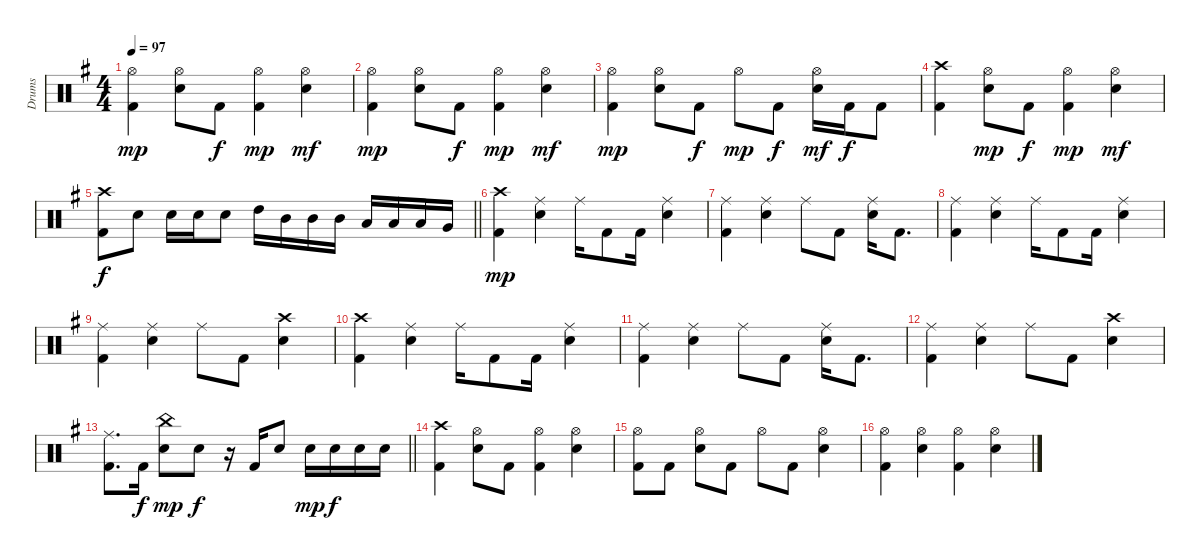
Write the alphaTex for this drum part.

\track ("Drums" "Drums") {instrument percussion}
\staff {score}
\articulation defaults
\ts (4 4)
\tempo 97
\clef neutral
\ks g
("Hi-Hat (open)" "Kick (hit) 2").4{dy mp} ("Hi-Hat (open)" "Electric Snare (hit)").8 "Kick (hit) 2".8{dy f} ("Hi-Hat (open)" "Kick (hit) 2").4{dy mp} ("Hi-Hat (open)" "Electric Snare (hit)").4{dy mf} |
("Hi-Hat (open)" "Kick (hit) 2").4{dy mp} ("Hi-Hat (open)" "Electric Snare (hit)").8 "Kick (hit) 2".8{dy f} ("Hi-Hat (open)" "Kick (hit) 2").4{dy mp} ("Hi-Hat (open)" "Electric Snare (hit)").4{dy mf} |
("Hi-Hat (open)" "Kick (hit) 2").4{dy mp} ("Hi-Hat (open)" "Electric Snare (hit)").8 "Kick (hit) 2".8{dy f} "Hi-Hat (open)".8{dy mp} "Kick (hit) 2".8{dy f} ("Hi-Hat (open)" "Electric Snare (hit)").16{dy mf} "Kick (hit) 2".16{dy f} "Kick (hit) 2".8 |
("Crash high (hit)" "Kick (hit) 2").4 ("Hi-Hat (open)" "Electric Snare (hit)").8{dy mp} "Kick (hit) 2".8{dy f} ("Hi-Hat (open)" "Kick (hit) 2").4{dy mp} ("Hi-Hat (open)" "Electric Snare (hit)").4{dy mf} |
\barLineRight lightlight
("Crash high (hit)" "Kick (hit) 2").8{dy f} "Electric Snare (hit)".8 "Electric Snare (hit)".16 "Electric Snare (hit)".16 "Electric Snare (hit)".8 "High Tom (hit)".16 "Mid Tom (hit)".16 "Mid Tom (hit)".16 "Mid Tom (hit)".16 "Low Tom (hit)".16 "Low Tom (hit)".16 "Low Tom (hit)".16 "Very Low Tom (hit)".16 |
("Crash high (hit)" "Kick (hit) 2").4{dy mp} ("Ride (middle)" "Electric Snare (hit)").4 "Ride (middle)".16 "Kick (hit) 2".8 "Kick (hit) 2".16 ("Ride (middle)" "Electric Snare (hit)").4 |
("Ride (middle)" "Kick (hit) 2").4 ("Ride (middle)" "Electric Snare (hit)").4 "Ride (middle)".8 "Kick (hit) 2".8 ("Ride (middle)" "Electric Snare (hit)").16 "Kick (hit) 2".8{d} |
("Ride (middle)" "Kick (hit) 2").4 ("Ride (middle)" "Electric Snare (hit)").4 "Ride (middle)".16 "Kick (hit) 2".8 "Kick (hit) 2".16 ("Ride (middle)" "Electric Snare (hit)").4 |
("Ride (middle)" "Kick (hit) 2").4 ("Ride (middle)" "Electric Snare (hit)").4 "Ride (middle)".8 "Kick (hit) 2".8 ("Electric Snare (hit)" "Crash high (hit)").4 |
("Crash high (hit)" "Kick (hit) 2").4 ("Ride (middle)" "Electric Snare (hit)").4 "Ride (middle)".16 "Kick (hit) 2".8 "Kick (hit) 2".16 ("Ride (middle)" "Electric Snare (hit)").4 |
("Ride (middle)" "Kick (hit) 2").4 ("Ride (middle)" "Electric Snare (hit)").4 "Ride (middle)".8 "Kick (hit) 2".8 ("Ride (middle)" "Electric Snare (hit)").16 "Kick (hit) 2".8{d} |
("Ride (middle)" "Kick (hit) 2").4 ("Ride (middle)" "Electric Snare (hit)").4 "Ride (middle)".8 "Kick (hit) 2".8 ("Electric Snare (hit)" "Crash high (hit)").4 |
\barLineRight lightlight
("Ride (middle)" "Kick (hit) 2").8{d} "Kick (hit) 2".16{dy f} ("China (hit)" "Electric Snare (hit)").8{dy mp} "Electric Snare (hit)".8{dy f} r.16 "Kick (hit) 2".16 "Electric Snare (hit)".8 "Electric Snare (hit)".16{dy mp} "Electric Snare (hit)".16{dy f} "Electric Snare (hit)".16 "Electric Snare (hit)".16 |
("Crash high (hit)" "Kick (hit) 2").4 ("Hi-Hat (open)" "Electric Snare (hit)").8 "Kick (hit) 2".8 ("Hi-Hat (open)" "Kick (hit) 2").4 ("Hi-Hat (open)" "Electric Snare (hit)").4 |
("Hi-Hat (open)" "Kick (hit) 2").8 "Kick (hit) 2".8 ("Hi-Hat (open)" "Electric Snare (hit)").8 "Kick (hit) 2".8 "Hi-Hat (open)".8 "Kick (hit) 2".8 ("Hi-Hat (open)" "Electric Snare (hit)").4 |
("Hi-Hat (open)" "Kick (hit) 2").4 ("Hi-Hat (open)" "Electric Snare (hit)").4 ("Hi-Hat (open)" "Kick (hit) 2").4 ("Hi-Hat (open)" "Electric Snare (hit)").4
